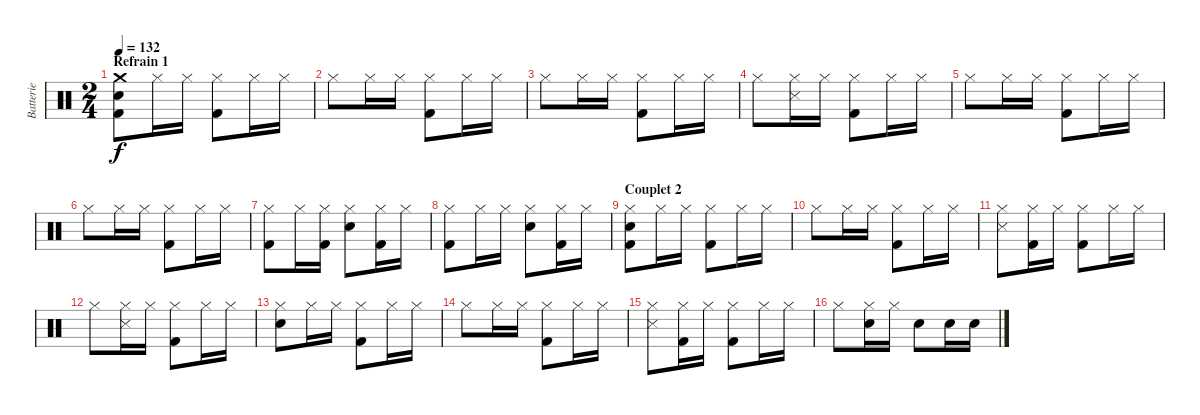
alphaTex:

\track ("Batterie" "Batterie") {instrument percussion}
\staff {score}
\articulation defaults
\ts (2 4)
\section ("" "Refrain 1")
\tempo 132
\clef neutral
\ks c
("Crash medium (hit)" "Snare (hit) 2" "Kick (hit) 2").8{dy f} "Hi-Hat (closed)".16 "Hi-Hat (closed)".16 ("Hi-Hat (closed)" "Kick (hit) 2").8 "Hi-Hat (closed)".16 "Hi-Hat (closed)".16 |
"Hi-Hat (closed)".8 "Hi-Hat (closed)".16 "Hi-Hat (closed)".16 ("Hi-Hat (closed)" "Kick (hit) 2").8 "Hi-Hat (closed)".16 "Hi-Hat (closed)".16 |
"Hi-Hat (closed)".8 "Hi-Hat (closed)".16 "Hi-Hat (closed)".16 ("Hi-Hat (closed)" "Kick (hit) 2").8 "Hi-Hat (closed)".16 "Hi-Hat (closed)".16 |
"Hi-Hat (closed)".8 ("Hi-Hat (closed)" "Snare (side stick) 3").16 "Hi-Hat (closed)".16 ("Hi-Hat (closed)" "Kick (hit) 2").8 "Hi-Hat (closed)".16 "Hi-Hat (closed)".16 |
"Hi-Hat (closed)".8 "Hi-Hat (closed)".16 "Hi-Hat (closed)".16 ("Hi-Hat (closed)" "Kick (hit) 2").8 "Hi-Hat (closed)".16 "Hi-Hat (closed)".16 |
"Hi-Hat (closed)".8 "Hi-Hat (closed)".16 "Hi-Hat (closed)".16 ("Hi-Hat (closed)" "Kick (hit) 2").8 "Hi-Hat (closed)".16 "Hi-Hat (closed)".16 |
("Hi-Hat (closed)" "Kick (hit) 2").8 "Hi-Hat (closed)".16 ("Hi-Hat (closed)" "Kick (hit) 2").16 ("Hi-Hat (closed)" "Snare (hit) 2").8 ("Hi-Hat (closed)" "Kick (hit) 2").16 "Hi-Hat (closed)".16 |
("Hi-Hat (closed)" "Kick (hit) 2").8 "Hi-Hat (closed)".16 "Hi-Hat (closed)".16 ("Hi-Hat (closed)" "Snare (hit) 2").8 ("Hi-Hat (closed)" "Kick (hit) 2").16 "Hi-Hat (closed)".16 |
\section ("" "Couplet 2")
("Hi-Hat (closed)" "Snare (hit) 2" "Kick (hit) 2").8 "Hi-Hat (closed)".16 "Hi-Hat (closed)".16 ("Hi-Hat (closed)" "Kick (hit) 2").8 "Hi-Hat (closed)".16 "Hi-Hat (closed)".16 |
"Hi-Hat (closed)".8 "Hi-Hat (closed)".16 "Hi-Hat (closed)".16 ("Hi-Hat (closed)" "Kick (hit) 2").8 "Hi-Hat (closed)".16 "Hi-Hat (closed)".16 |
("Hi-Hat (closed)" "Snare (side stick) 3").8 ("Hi-Hat (closed)" "Kick (hit) 2").16 "Hi-Hat (closed)".16 ("Hi-Hat (closed)" "Kick (hit) 2").8 "Hi-Hat (closed)".16 "Hi-Hat (closed)".16 |
"Hi-Hat (closed)".8 ("Hi-Hat (closed)" "Snare (side stick) 3").16 "Hi-Hat (closed)".16 ("Hi-Hat (closed)" "Kick (hit) 2").8 "Hi-Hat (closed)".16 "Hi-Hat (closed)".16 |
("Hi-Hat (closed)" "Snare (hit) 2").8 "Hi-Hat (closed)".16 "Hi-Hat (closed)".16 ("Hi-Hat (closed)" "Kick (hit) 2").8 "Hi-Hat (closed)".16 "Hi-Hat (closed)".16 |
"Hi-Hat (closed)".8 "Hi-Hat (closed)".16 "Hi-Hat (closed)".16 ("Hi-Hat (closed)" "Kick (hit) 2").8 "Hi-Hat (closed)".16 "Hi-Hat (closed)".16 |
("Hi-Hat (closed)" "Snare (side stick) 3").8 ("Hi-Hat (closed)" "Kick (hit) 2").16 "Hi-Hat (closed)".16 ("Hi-Hat (closed)" "Kick (hit) 2").8 "Hi-Hat (closed)".16 "Hi-Hat (closed)".16 |
"Hi-Hat (closed)".8 ("Hi-Hat (closed)" "Snare (hit) 2").16 "Hi-Hat (closed)".16 "Snare (hit) 2".8 "Snare (hit) 2".16 "Snare (hit) 2".16
